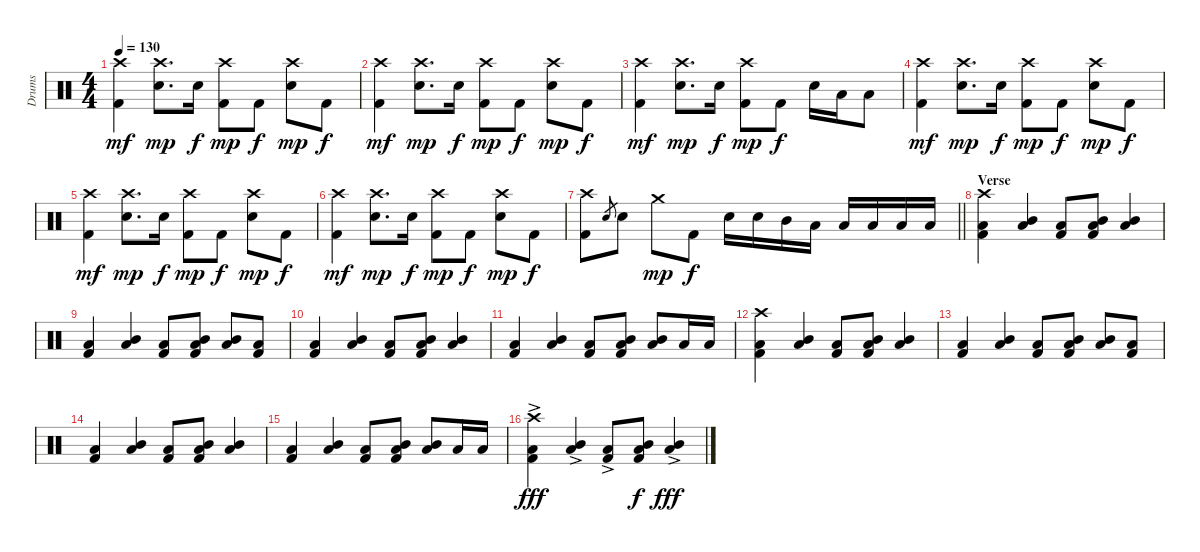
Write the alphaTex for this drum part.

\track ("Drums" "Drums") {instrument percussion}
\staff {score}
\articulation defaults
\ts (4 4)
\tempo 130
\clef neutral
\ks c
("Crash high (hit)" "Kick (hit) 2").4{dy mf} ("Crash high (hit)" "Snare (hit) 2").8{d dy mp} "Snare (hit) 2".16{dy f} ("Crash high (hit)" "Kick (hit) 2").8{dy mp} "Kick (hit) 2".8{dy f} ("Crash high (hit)" "Snare (hit) 2").8{dy mp} "Kick (hit) 2".8{dy f} |
("Crash high (hit)" "Kick (hit) 2").4{dy mf} ("Crash high (hit)" "Snare (hit) 2").8{d dy mp} "Snare (hit) 2".16{dy f} ("Crash high (hit)" "Kick (hit) 2").8{dy mp} "Kick (hit) 2".8{dy f} ("Crash high (hit)" "Snare (hit) 2").8{dy mp} "Kick (hit) 2".8{dy f} |
("Crash high (hit)" "Kick (hit) 2").4{dy mf} ("Crash high (hit)" "Snare (hit) 2").8{d dy mp} "Snare (hit) 2".16{dy f} ("Crash high (hit)" "Kick (hit) 2").8{dy mp} "Kick (hit) 2".8{dy f} "Snare (hit) 2".16 "Low Tom (hit)".16 "Low Floor Tom (hit)".8 |
("Crash high (hit)" "Kick (hit) 2").4{dy mf} ("Crash high (hit)" "Snare (hit) 2").8{d dy mp} "Snare (hit) 2".16{dy f} ("Crash high (hit)" "Kick (hit) 2").8{dy mp} "Kick (hit) 2".8{dy f} ("Crash high (hit)" "Snare (hit) 2").8{dy mp} "Kick (hit) 2".8{dy f} |
("Crash high (hit)" "Kick (hit) 2").4{dy mf} ("Crash high (hit)" "Snare (hit) 2").8{d dy mp} "Snare (hit) 2".16{dy f} ("Crash high (hit)" "Kick (hit) 2").8{dy mp} "Kick (hit) 2".8{dy f} ("Crash high (hit)" "Snare (hit) 2").8{dy mp} "Kick (hit) 2".8{dy f} |
("Crash high (hit)" "Kick (hit) 2").4{dy mf} ("Crash high (hit)" "Snare (hit) 2").8{d dy mp} "Snare (hit) 2".16{dy f} ("Crash high (hit)" "Kick (hit) 2").8{dy mp} "Kick (hit) 2".8{dy f} ("Crash high (hit)" "Snare (hit) 2").8{dy mp} "Kick (hit) 2".8{dy f} |
\barLineRight lightlight
("Crash high (hit)" "Kick (hit) 2").8 "Snare (hit) 2".8{gr} "Snare (hit) 2".8 "Crash medium (hit)".8{dy mp} "Kick (hit) 2".8{dy f} "Snare (hit) 2".16 "Snare (hit) 2".16 "Mid Tom (hit)".16 "Low Tom (hit)".16 "Low Tom (hit)".16 "Low Floor Tom (hit)".16 "Low Floor Tom (hit)".16 "Low Floor Tom (hit)".16 |
\section ("" "Verse")
("Crash high (hit)" "Low Floor Tom (hit)" "Kick (hit) 2").4 ("Mid Tom (hit)" "Low Tom (hit)").4 ("Low Floor Tom (hit)" "Kick (hit) 2").8 ("Mid Tom (hit)" "Low Floor Tom (hit)" "Kick (hit) 2").8 ("Mid Tom (hit)" "Low Tom (hit)").4 |
("Low Floor Tom (hit)" "Kick (hit) 2").4 ("Mid Tom (hit)" "Low Tom (hit)").4 ("Low Floor Tom (hit)" "Kick (hit) 2").8 ("Mid Tom (hit)" "Low Floor Tom (hit)" "Kick (hit) 2").8 ("Mid Tom (hit)" "Low Tom (hit)").8 ("Low Floor Tom (hit)" "Kick (hit) 2").8 |
("Low Floor Tom (hit)" "Kick (hit) 2").4 ("Mid Tom (hit)" "Low Tom (hit)").4 ("Low Floor Tom (hit)" "Kick (hit) 2").8 ("Mid Tom (hit)" "Low Floor Tom (hit)" "Kick (hit) 2").8 ("Mid Tom (hit)" "Low Tom (hit)").4 |
("Low Floor Tom (hit)" "Kick (hit) 2").4 ("Mid Tom (hit)" "Low Tom (hit)").4 ("Low Floor Tom (hit)" "Kick (hit) 2").8 ("Mid Tom (hit)" "Low Floor Tom (hit)" "Kick (hit) 2").8 ("Mid Tom (hit)" "Low Tom (hit)").8 "Low Floor Tom (hit)".16 "Low Floor Tom (hit)".16 |
("Crash high (hit)" "Low Floor Tom (hit)" "Kick (hit) 2").4 ("Mid Tom (hit)" "Low Tom (hit)").4 ("Low Floor Tom (hit)" "Kick (hit) 2").8 ("Mid Tom (hit)" "Low Floor Tom (hit)" "Kick (hit) 2").8 ("Mid Tom (hit)" "Low Tom (hit)").4 |
("Low Floor Tom (hit)" "Kick (hit) 2").4 ("Mid Tom (hit)" "Low Tom (hit)").4 ("Low Floor Tom (hit)" "Kick (hit) 2").8 ("Mid Tom (hit)" "Low Floor Tom (hit)" "Kick (hit) 2").8 ("Mid Tom (hit)" "Low Tom (hit)").8 ("Low Floor Tom (hit)" "Kick (hit) 2").8 |
("Low Floor Tom (hit)" "Kick (hit) 2").4 ("Mid Tom (hit)" "Low Tom (hit)").4 ("Low Floor Tom (hit)" "Kick (hit) 2").8 ("Mid Tom (hit)" "Low Floor Tom (hit)" "Kick (hit) 2").8 ("Mid Tom (hit)" "Low Tom (hit)").4 |
("Low Floor Tom (hit)" "Kick (hit) 2").4 ("Mid Tom (hit)" "Low Tom (hit)").4 ("Low Floor Tom (hit)" "Kick (hit) 2").8 ("Mid Tom (hit)" "Low Floor Tom (hit)" "Kick (hit) 2").8 ("Mid Tom (hit)" "Low Tom (hit)").8 "Low Floor Tom (hit)".16 "Low Floor Tom (hit)".16 |
("Crash high (hit)" "Low Floor Tom (hit)" "Kick (hit) 2"{ac}).4{dy fff} ("Mid Tom (hit)" "Low Tom (hit)"{ac}).4 ("Low Floor Tom (hit)" "Kick (hit) 2"{ac}).8 ("Mid Tom (hit)" "Low Floor Tom (hit)" "Kick (hit) 2").8{dy f} ("Mid Tom (hit)" "Low Tom (hit)"{ac}).4{dy fff}
